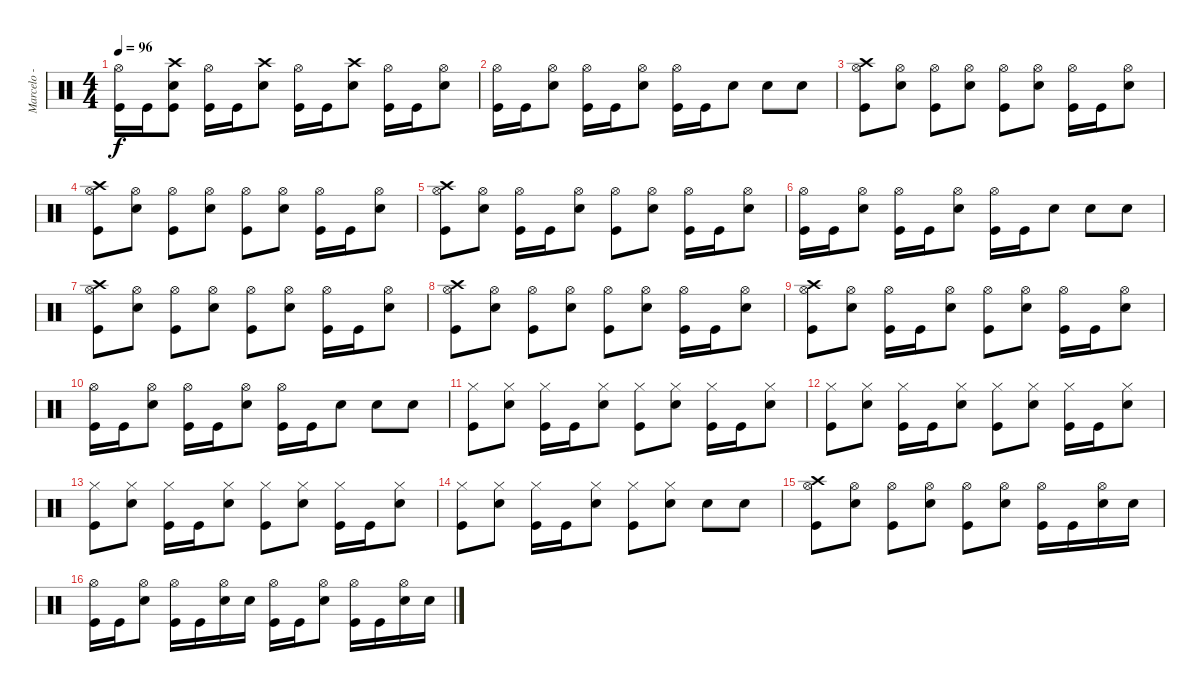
\track ("Marcelo - Percusión" "Marcelo - ") {instrument percussion}
\staff {score}
\articulation defaults
\ts (4 4)
\tempo 96
\clef neutral
\ks c
("Hi-Hat (open)" "Kick (hit)").16{dy f} "Kick (hit)".16 ("Crash high (hit)" "Electric Snare (hit)" "Kick (hit)").8 ("Hi-Hat (open)" "Kick (hit)").16 "Kick (hit)".16 ("Crash high (hit)" "Electric Snare (hit)").8 ("Hi-Hat (open)" "Kick (hit)").16 "Kick (hit)".16 ("Crash high (hit)" "Electric Snare (hit)").8 ("Hi-Hat (open)" "Kick (hit)").16 "Kick (hit)".16 ("Hi-Hat (open)" "Electric Snare (hit)").8 |
("Hi-Hat (open)" "Kick (hit)").16 "Kick (hit)".16 ("Hi-Hat (open)" "Electric Snare (hit)").8 ("Hi-Hat (open)" "Kick (hit)").16 "Kick (hit)".16 ("Hi-Hat (open)" "Electric Snare (hit)").8 ("Hi-Hat (open)" "Kick (hit)").16 "Kick (hit)".16 "Electric Snare (hit)".8 "Electric Snare (hit)".8 "Electric Snare (hit)".8 |
("Crash high (hit)" "Hi-Hat (open)" "Kick (hit)").8 ("Hi-Hat (open)" "Electric Snare (hit)").8 ("Hi-Hat (open)" "Kick (hit)").8 ("Hi-Hat (open)" "Electric Snare (hit)").8 ("Hi-Hat (open)" "Kick (hit)").8 ("Hi-Hat (open)" "Electric Snare (hit)").8 ("Hi-Hat (open)" "Kick (hit)").16 "Kick (hit)".16 ("Hi-Hat (open)" "Electric Snare (hit)").8 |
("Crash high (hit)" "Hi-Hat (open)" "Kick (hit)").8 ("Hi-Hat (open)" "Electric Snare (hit)").8 ("Hi-Hat (open)" "Kick (hit)").8 ("Hi-Hat (open)" "Electric Snare (hit)").8 ("Hi-Hat (open)" "Kick (hit)").8 ("Hi-Hat (open)" "Electric Snare (hit)").8 ("Hi-Hat (open)" "Kick (hit)").16 "Kick (hit)".16 ("Hi-Hat (open)" "Electric Snare (hit)").8 |
("Crash high (hit)" "Hi-Hat (open)" "Kick (hit)").8 ("Hi-Hat (open)" "Electric Snare (hit)").8 ("Hi-Hat (open)" "Kick (hit)").16 "Kick (hit)".16 ("Hi-Hat (open)" "Electric Snare (hit)").8 ("Hi-Hat (open)" "Kick (hit)").8 ("Hi-Hat (open)" "Electric Snare (hit)").8 ("Hi-Hat (open)" "Kick (hit)").16 "Kick (hit)".16 ("Hi-Hat (open)" "Electric Snare (hit)").8 |
("Hi-Hat (open)" "Kick (hit)").16 "Kick (hit)".16 ("Hi-Hat (open)" "Electric Snare (hit)").8 ("Hi-Hat (open)" "Kick (hit)").16 "Kick (hit)".16 ("Hi-Hat (open)" "Electric Snare (hit)").8 ("Hi-Hat (open)" "Kick (hit)").16 "Kick (hit)".16 "Electric Snare (hit)".8 "Electric Snare (hit)".8 "Electric Snare (hit)".8 |
("Crash high (hit)" "Hi-Hat (open)" "Kick (hit)").8 ("Hi-Hat (open)" "Electric Snare (hit)").8 ("Hi-Hat (open)" "Kick (hit)").8 ("Hi-Hat (open)" "Electric Snare (hit)").8 ("Hi-Hat (open)" "Kick (hit)").8 ("Hi-Hat (open)" "Electric Snare (hit)").8 ("Hi-Hat (open)" "Kick (hit)").16 "Kick (hit)".16 ("Hi-Hat (open)" "Electric Snare (hit)").8 |
("Crash high (hit)" "Hi-Hat (open)" "Kick (hit)").8 ("Hi-Hat (open)" "Electric Snare (hit)").8 ("Hi-Hat (open)" "Kick (hit)").8 ("Hi-Hat (open)" "Electric Snare (hit)").8 ("Hi-Hat (open)" "Kick (hit)").8 ("Hi-Hat (open)" "Electric Snare (hit)").8 ("Hi-Hat (open)" "Kick (hit)").16 "Kick (hit)".16 ("Hi-Hat (open)" "Electric Snare (hit)").8 |
("Crash high (hit)" "Hi-Hat (open)" "Kick (hit)").8 ("Hi-Hat (open)" "Electric Snare (hit)").8 ("Hi-Hat (open)" "Kick (hit)").16 "Kick (hit)".16 ("Hi-Hat (open)" "Electric Snare (hit)").8 ("Hi-Hat (open)" "Kick (hit)").8 ("Hi-Hat (open)" "Electric Snare (hit)").8 ("Hi-Hat (open)" "Kick (hit)").16 "Kick (hit)".16 ("Hi-Hat (open)" "Electric Snare (hit)").8 |
("Hi-Hat (open)" "Kick (hit)").16 "Kick (hit)".16 ("Hi-Hat (open)" "Electric Snare (hit)").8 ("Hi-Hat (open)" "Kick (hit)").16 "Kick (hit)".16 ("Hi-Hat (open)" "Electric Snare (hit)").8 ("Hi-Hat (open)" "Kick (hit)").16 "Kick (hit)".16 "Electric Snare (hit)".8 "Electric Snare (hit)".8 "Electric Snare (hit)".8 |
("Hi-Hat (closed)" "Kick (hit)").8 ("Hi-Hat (closed)" "Electric Snare (hit)").8 ("Hi-Hat (closed)" "Kick (hit)").16 "Kick (hit)".16 ("Hi-Hat (closed)" "Electric Snare (hit)").8 ("Hi-Hat (closed)" "Kick (hit)").8 ("Hi-Hat (closed)" "Electric Snare (hit)").8 ("Hi-Hat (closed)" "Kick (hit)").16 "Kick (hit)".16 ("Hi-Hat (closed)" "Electric Snare (hit)").8 |
("Hi-Hat (closed)" "Kick (hit)").8 ("Hi-Hat (closed)" "Electric Snare (hit)").8 ("Hi-Hat (closed)" "Kick (hit)").16 "Kick (hit)".16 ("Hi-Hat (closed)" "Electric Snare (hit)").8 ("Hi-Hat (closed)" "Kick (hit)").8 ("Hi-Hat (closed)" "Electric Snare (hit)").8 ("Hi-Hat (closed)" "Kick (hit)").16 "Kick (hit)".16 ("Hi-Hat (closed)" "Electric Snare (hit)").8 |
("Hi-Hat (closed)" "Kick (hit)").8 ("Hi-Hat (closed)" "Electric Snare (hit)").8 ("Hi-Hat (closed)" "Kick (hit)").16 "Kick (hit)".16 ("Hi-Hat (closed)" "Electric Snare (hit)").8 ("Hi-Hat (closed)" "Kick (hit)").8 ("Hi-Hat (closed)" "Electric Snare (hit)").8 ("Hi-Hat (closed)" "Kick (hit)").16 "Kick (hit)".16 ("Hi-Hat (closed)" "Electric Snare (hit)").8 |
("Hi-Hat (closed)" "Kick (hit)").8 ("Hi-Hat (closed)" "Electric Snare (hit)").8 ("Hi-Hat (closed)" "Kick (hit)").16 "Kick (hit)".16 ("Hi-Hat (closed)" "Electric Snare (hit)").8 ("Hi-Hat (closed)" "Kick (hit)").8 ("Hi-Hat (closed)" "Electric Snare (hit)").8 "Electric Snare (hit)".8 "Electric Snare (hit)".8 |
("Crash high (hit)" "Hi-Hat (open)" "Kick (hit)").8 ("Hi-Hat (open)" "Electric Snare (hit)").8 ("Hi-Hat (open)" "Kick (hit)").8 ("Hi-Hat (open)" "Electric Snare (hit)").8 ("Hi-Hat (open)" "Kick (hit)").8 ("Hi-Hat (open)" "Electric Snare (hit)").8 ("Hi-Hat (open)" "Kick (hit)").16 "Kick (hit)".16 ("Hi-Hat (open)" "Electric Snare (hit)").16 "Electric Snare (hit)".16 |
("Hi-Hat (open)" "Kick (hit)").16 "Kick (hit)".16 ("Hi-Hat (open)" "Electric Snare (hit)").8 ("Hi-Hat (open)" "Kick (hit)").16 "Kick (hit)".16 ("Hi-Hat (open)" "Electric Snare (hit)").16 "Electric Snare (hit)".16 ("Hi-Hat (open)" "Kick (hit)").16 "Kick (hit)".16 ("Hi-Hat (open)" "Electric Snare (hit)").8 ("Hi-Hat (open)" "Kick (hit)").16 "Kick (hit)".16 ("Hi-Hat (open)" "Electric Snare (hit)").16 "Electric Snare (hit)".16
